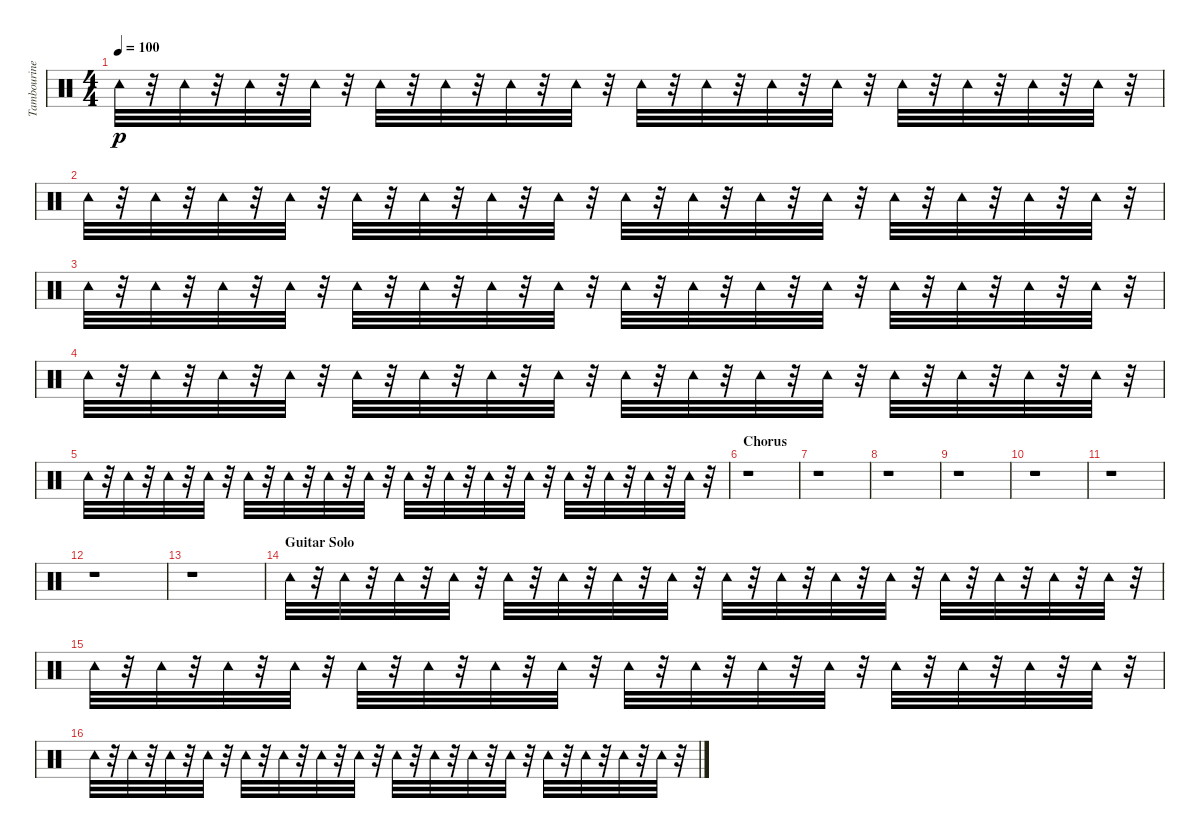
\track ("Tambourine" "Tambourine") {instrument percussion}
\staff {score}
\articulation defaults
\ts (4 4)
\tempo 100
\clef neutral
\ks c "Tambourine (hit)".32{dy p}
r.32 "Tambourine (hit)".32 r.32 "Tambourine (hit)".32 r.32 "Tambourine (hit)".32 r.32 "Tambourine (hit)".32 r.32 "Tambourine (hit)".32 r.32 "Tambourine (hit)".32 r.32 "Tambourine (hit)".32 r.32 "Tambourine (hit)".32 r.32 "Tambourine (hit)".32 r.32 "Tambourine (hit)".32 r.32 "Tambourine (hit)".32 r.32 "Tambourine (hit)".32 r.32 "Tambourine (hit)".32 r.32 "Tambourine (hit)".32 r.32 "Tambourine (hit)".32 r.32 |
"Tambourine (hit)".32 r.32 "Tambourine (hit)".32 r.32 "Tambourine (hit)".32 r.32 "Tambourine (hit)".32 r.32 "Tambourine (hit)".32 r.32 "Tambourine (hit)".32 r.32 "Tambourine (hit)".32 r.32 "Tambourine (hit)".32 r.32 "Tambourine (hit)".32 r.32 "Tambourine (hit)".32 r.32 "Tambourine (hit)".32 r.32 "Tambourine (hit)".32 r.32 "Tambourine (hit)".32 r.32 "Tambourine (hit)".32 r.32 "Tambourine (hit)".32 r.32 "Tambourine (hit)".32 r.32 |
"Tambourine (hit)".32 r.32 "Tambourine (hit)".32 r.32 "Tambourine (hit)".32 r.32 "Tambourine (hit)".32 r.32 "Tambourine (hit)".32 r.32 "Tambourine (hit)".32 r.32 "Tambourine (hit)".32 r.32 "Tambourine (hit)".32 r.32 "Tambourine (hit)".32 r.32 "Tambourine (hit)".32 r.32 "Tambourine (hit)".32 r.32 "Tambourine (hit)".32 r.32 "Tambourine (hit)".32 r.32 "Tambourine (hit)".32 r.32 "Tambourine (hit)".32 r.32 "Tambourine (hit)".32 r.32 |
"Tambourine (hit)".32 r.32 "Tambourine (hit)".32 r.32 "Tambourine (hit)".32 r.32 "Tambourine (hit)".32 r.32 "Tambourine (hit)".32 r.32 "Tambourine (hit)".32 r.32 "Tambourine (hit)".32 r.32 "Tambourine (hit)".32 r.32 "Tambourine (hit)".32 r.32 "Tambourine (hit)".32 r.32 "Tambourine (hit)".32 r.32 "Tambourine (hit)".32 r.32 "Tambourine (hit)".32 r.32 "Tambourine (hit)".32 r.32 "Tambourine (hit)".32 r.32 "Tambourine (hit)".32 r.32 |
"Tambourine (hit)".32 r.32 "Tambourine (hit)".32 r.32 "Tambourine (hit)".32 r.32 "Tambourine (hit)".32 r.32 "Tambourine (hit)".32 r.32 "Tambourine (hit)".32 r.32 "Tambourine (hit)".32 r.32 "Tambourine (hit)".32 r.32 "Tambourine (hit)".32 r.32 "Tambourine (hit)".32 r.32 "Tambourine (hit)".32 r.32 "Tambourine (hit)".32 r.32 "Tambourine (hit)".32 r.32 "Tambourine (hit)".32 r.32 "Tambourine (hit)".32 r.32 "Tambourine (hit)".32 r.32 |
\section ("" "Chorus")
r.1 |
r.1 |
r.1 |
r.1 |
r.1 |
r.1 |
r.1 |
r.1 |
\section ("" "Guitar Solo")
"Tambourine (hit)".32 r.32 "Tambourine (hit)".32 r.32 "Tambourine (hit)".32 r.32 "Tambourine (hit)".32 r.32 "Tambourine (hit)".32 r.32 "Tambourine (hit)".32 r.32 "Tambourine (hit)".32 r.32 "Tambourine (hit)".32 r.32 "Tambourine (hit)".32 r.32 "Tambourine (hit)".32 r.32 "Tambourine (hit)".32 r.32 "Tambourine (hit)".32 r.32 "Tambourine (hit)".32 r.32 "Tambourine (hit)".32 r.32 "Tambourine (hit)".32 r.32 "Tambourine (hit)".32 r.32 |
"Tambourine (hit)".32 r.32 "Tambourine (hit)".32 r.32 "Tambourine (hit)".32 r.32 "Tambourine (hit)".32 r.32 "Tambourine (hit)".32 r.32 "Tambourine (hit)".32 r.32 "Tambourine (hit)".32 r.32 "Tambourine (hit)".32 r.32 "Tambourine (hit)".32 r.32 "Tambourine (hit)".32 r.32 "Tambourine (hit)".32 r.32 "Tambourine (hit)".32 r.32 "Tambourine (hit)".32 r.32 "Tambourine (hit)".32 r.32 "Tambourine (hit)".32 r.32 "Tambourine (hit)".32 r.32 |
"Tambourine (hit)".32 r.32 "Tambourine (hit)".32 r.32 "Tambourine (hit)".32 r.32 "Tambourine (hit)".32 r.32 "Tambourine (hit)".32 r.32 "Tambourine (hit)".32 r.32 "Tambourine (hit)".32 r.32 "Tambourine (hit)".32 r.32 "Tambourine (hit)".32 r.32 "Tambourine (hit)".32 r.32 "Tambourine (hit)".32 r.32 "Tambourine (hit)".32 r.32 "Tambourine (hit)".32 r.32 "Tambourine (hit)".32 r.32 "Tambourine (hit)".32 r.32 "Tambourine (hit)".32 r.32
